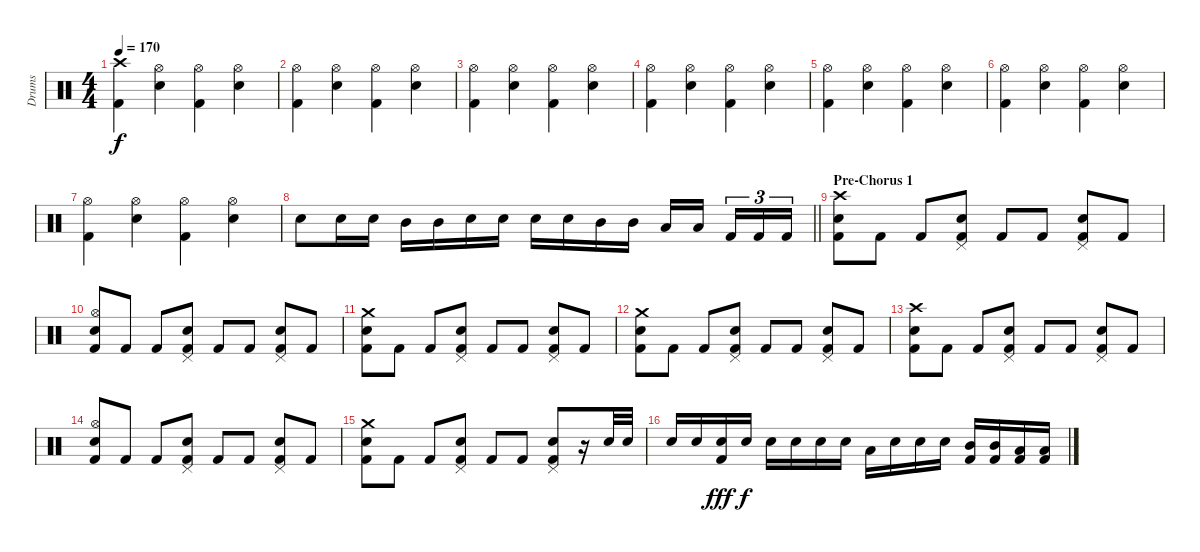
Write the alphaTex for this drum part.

\track ("Drums" "Drums") {instrument percussion}
\staff {score}
\articulation defaults
\ts (4 4)
\tempo 170
\clef neutral
\ks c
("Crash high (hit)" "Kick (hit) 2").4{dy f} ("Hi-Hat (open)" "Electric Snare (hit)").4 ("Hi-Hat (open)" "Kick (hit) 2").4 ("Hi-Hat (open)" "Electric Snare (hit)").4 |
("Hi-Hat (open)" "Kick (hit) 2").4 ("Hi-Hat (open)" "Electric Snare (hit)").4 ("Hi-Hat (open)" "Kick (hit) 2").4 ("Hi-Hat (open)" "Electric Snare (hit)").4 |
("Hi-Hat (open)" "Kick (hit) 2").4 ("Hi-Hat (open)" "Electric Snare (hit)").4 ("Hi-Hat (open)" "Kick (hit) 2").4 ("Hi-Hat (open)" "Electric Snare (hit)").4 |
("Hi-Hat (open)" "Kick (hit) 2").4 ("Hi-Hat (open)" "Electric Snare (hit)").4 ("Hi-Hat (open)" "Kick (hit) 2").4 ("Hi-Hat (open)" "Electric Snare (hit)").4 |
("Hi-Hat (open)" "Kick (hit) 2").4 ("Hi-Hat (open)" "Electric Snare (hit)").4 ("Hi-Hat (open)" "Kick (hit) 2").4 ("Hi-Hat (open)" "Electric Snare (hit)").4 |
("Hi-Hat (open)" "Kick (hit) 2").4 ("Hi-Hat (open)" "Electric Snare (hit)").4 ("Hi-Hat (open)" "Kick (hit) 2").4 ("Hi-Hat (open)" "Electric Snare (hit)").4 |
("Hi-Hat (open)" "Kick (hit) 2").4 ("Hi-Hat (open)" "Electric Snare (hit)").4 ("Hi-Hat (open)" "Kick (hit) 2").4 ("Hi-Hat (open)" "Electric Snare (hit)").4 |
\barLineRight lightlight "Electric Snare (hit)".8 "Electric Snare (hit)".16 "Electric Snare (hit)".16 "Mid Tom (hit)".16 "Mid Tom (hit)".16 "Electric Snare (hit)".16 "Electric Snare (hit)".16 "Electric Snare (hit)".16 "Electric Snare (hit)".16 "Mid Tom (hit)".16 "Mid Tom (hit)".16 "Low Tom (hit)".16 "Low Tom (hit)".16{beam splitsecondary} "Kick (hit) 2".16{tu (3 2)} "Kick (hit) 2".16{tu (3 2)} "Kick (hit) 2".16{tu (3 2)}
|
\section ("" "Pre-Chorus 1")
("Crash high (hit)" "Electric Snare (hit)" "Kick (hit) 2").8 "Kick (hit) 2".8 "Kick (hit) 2".8 ("Pedal Hi-Hat (hit)" "Electric Snare (hit)" "Kick (hit) 2").8 "Kick (hit) 2".8 "Kick (hit) 2".8 ("Pedal Hi-Hat (hit)" "Electric Snare (hit)" "Kick (hit) 2").8 "Kick (hit) 2".8 |
("Hi-Hat (open)" "Electric Snare (hit)" "Kick (hit) 2").8 "Kick (hit) 2".8 "Kick (hit) 2".8 ("Pedal Hi-Hat (hit)" "Electric Snare (hit)" "Kick (hit) 2").8 "Kick (hit) 2".8 "Kick (hit) 2".8 ("Pedal Hi-Hat (hit)" "Electric Snare (hit)" "Kick (hit) 2").8 "Kick (hit) 2".8 |
("Crash medium (hit)" "Electric Snare (hit)" "Kick (hit) 2").8 "Kick (hit) 2".8 "Kick (hit) 2".8 ("Pedal Hi-Hat (hit)" "Electric Snare (hit)" "Kick (hit) 2").8 "Kick (hit) 2".8 "Kick (hit) 2".8 ("Pedal Hi-Hat (hit)" "Electric Snare (hit)" "Kick (hit) 2").8 "Kick (hit) 2".8 |
("Crash medium (hit)" "Electric Snare (hit)" "Kick (hit) 2").8 "Kick (hit) 2".8 "Kick (hit) 2".8 ("Pedal Hi-Hat (hit)" "Electric Snare (hit)" "Kick (hit) 2").8 "Kick (hit) 2".8 "Kick (hit) 2".8 ("Pedal Hi-Hat (hit)" "Electric Snare (hit)" "Kick (hit) 2").8 "Kick (hit) 2".8 |
("Crash high (hit)" "Electric Snare (hit)" "Kick (hit) 2").8 "Kick (hit) 2".8 "Kick (hit) 2".8 ("Pedal Hi-Hat (hit)" "Electric Snare (hit)" "Kick (hit) 2").8 "Kick (hit) 2".8 "Kick (hit) 2".8 ("Pedal Hi-Hat (hit)" "Electric Snare (hit)" "Kick (hit) 2").8 "Kick (hit) 2".8 |
("Hi-Hat (open)" "Electric Snare (hit)" "Kick (hit) 2").8 "Kick (hit) 2".8 "Kick (hit) 2".8 ("Pedal Hi-Hat (hit)" "Electric Snare (hit)" "Kick (hit) 2").8 "Kick (hit) 2".8 "Kick (hit) 2".8 ("Pedal Hi-Hat (hit)" "Electric Snare (hit)" "Kick (hit) 2").8 "Kick (hit) 2".8 |
("Crash medium (hit)" "Electric Snare (hit)" "Kick (hit) 2").8 "Kick (hit) 2".8 "Kick (hit) 2".8 ("Pedal Hi-Hat (hit)" "Electric Snare (hit)" "Kick (hit) 2").8 "Kick (hit) 2".8 "Kick (hit) 2".8 ("Pedal Hi-Hat (hit)" "Electric Snare (hit)" "Kick (hit) 2").8 r.16 "Electric Snare (hit)".32 "Electric Snare (hit)".32 |
"Electric Snare (hit)".16 "Electric Snare (hit)".16 ("Electric Snare (hit)" "Kick (hit) 2").16{dy fff} "Electric Snare (hit)".16{dy f} "Electric Snare (hit)".16 "Electric Snare (hit)".16 "Electric Snare (hit)".16 "Electric Snare (hit)".16 "Low Tom (hit)".16 "Electric Snare (hit)".16 "Electric Snare (hit)".16 "Electric Snare (hit)".16 ("Mid Tom (hit)" "Kick (hit) 2").16 ("Mid Tom (hit)" "Kick (hit) 2").16 ("Low Tom (hit)" "Kick (hit) 2").16 ("Low Tom (hit)" "Kick (hit) 2").16
